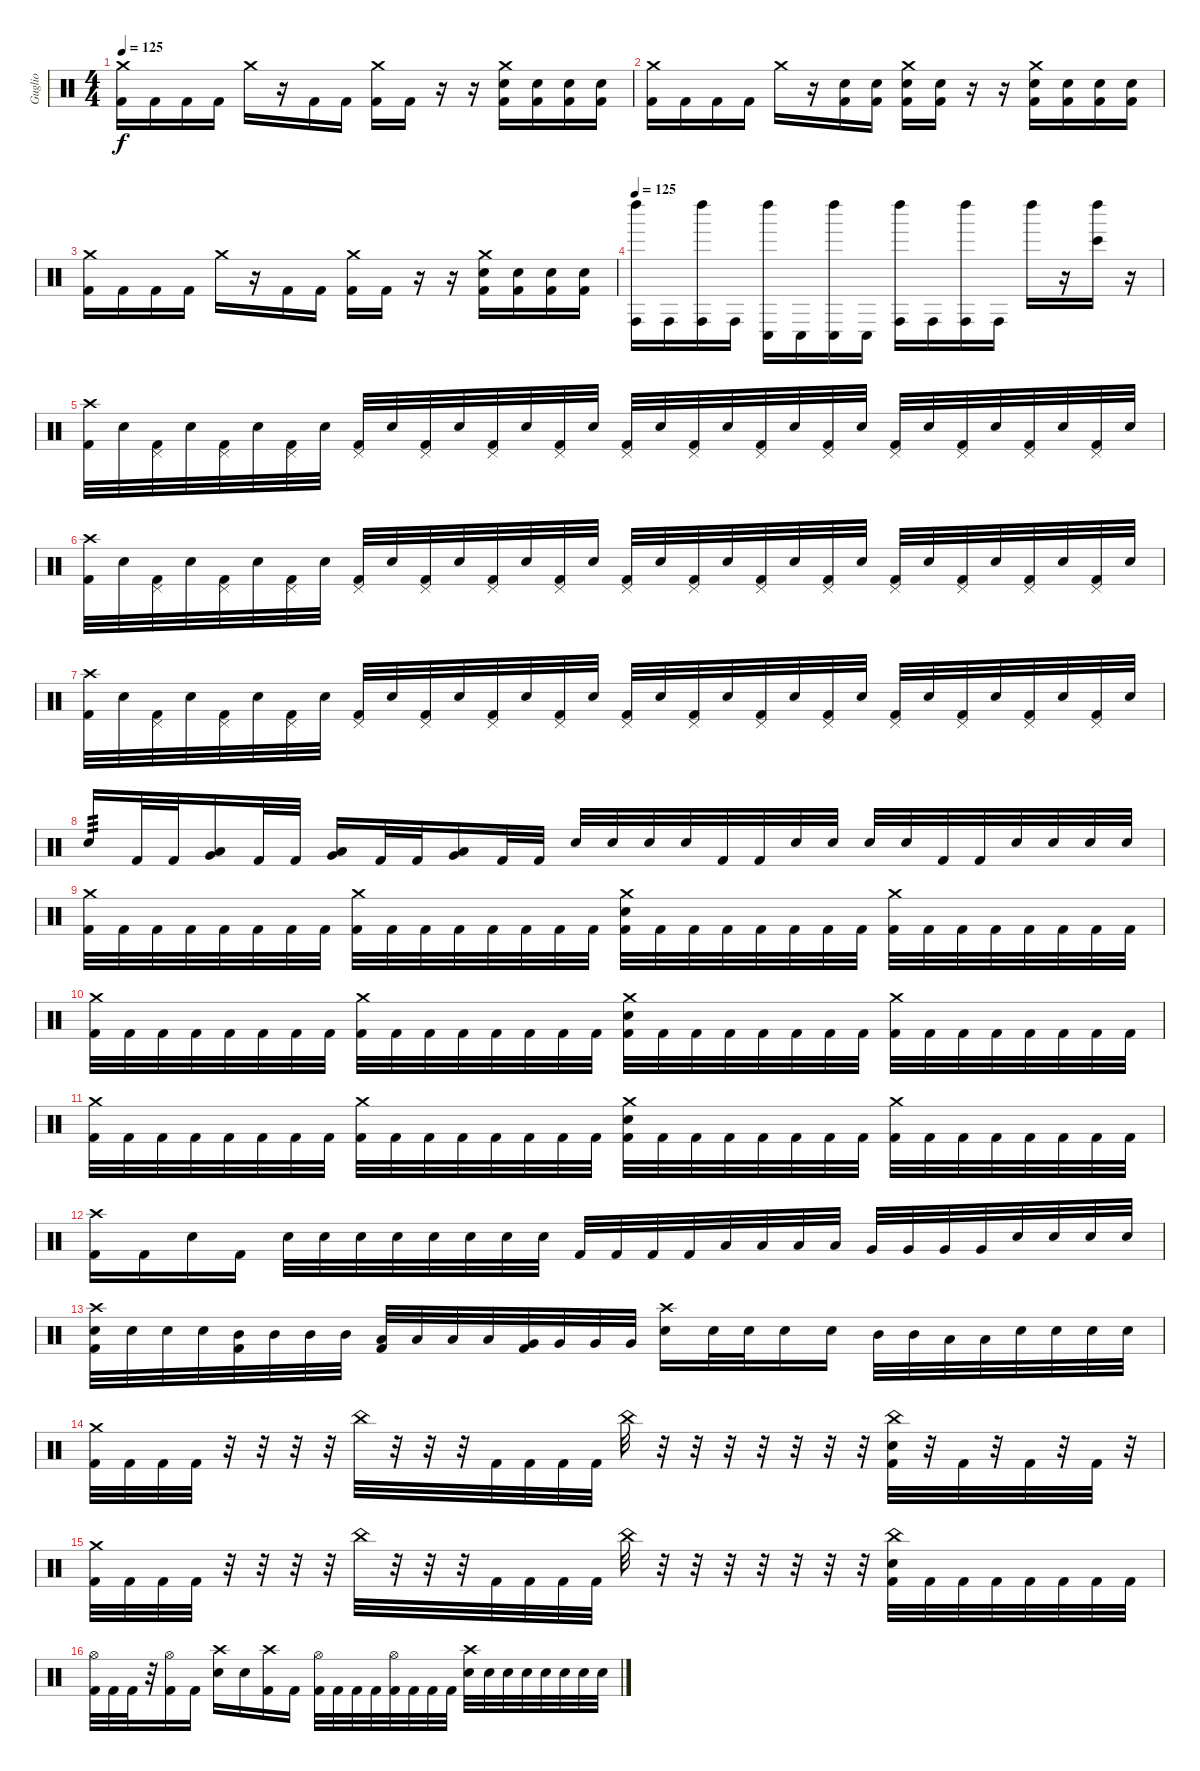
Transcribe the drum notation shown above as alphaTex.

\track ("Guglio" "Guglio") {instrument percussion}
\staff {score}
\articulation defaults
\ts (4 4)
\tempo 125
\clef neutral
\ks c
("Crash medium (hit)" "Kick (hit) 2").16{dy f} "Kick (hit) 2".16 "Kick (hit) 2".16 "Kick (hit) 2".16 "Crash medium (hit)".16 r.16 "Kick (hit) 2".16 "Kick (hit) 2".16 ("Crash medium (hit)" "Kick (hit) 2").16 "Kick (hit) 2".16 r.16 r.16 ("Crash medium (hit)" "Electric Snare (hit)" "Kick (hit) 2").16 ("Electric Snare (hit)" "Kick (hit) 2").16 ("Electric Snare (hit)" "Kick (hit) 2").16 ("Electric Snare (hit)" "Kick (hit) 2").16 |
("Crash medium (hit)" "Kick (hit) 2").16 "Kick (hit) 2".16 "Kick (hit) 2".16 "Kick (hit) 2".16 "Crash medium (hit)".16 r.16 ("Electric Snare (hit)" "Kick (hit) 2").16 ("Electric Snare (hit)" "Kick (hit) 2").16 ("Crash medium (hit)" "Electric Snare (hit)" "Kick (hit) 2").16 ("Electric Snare (hit)" "Kick (hit) 2").16 r.16 r.16 ("Crash medium (hit)" "Electric Snare (hit)" "Kick (hit) 2").16 ("Electric Snare (hit)" "Kick (hit) 2").16 ("Electric Snare (hit)" "Kick (hit) 2").16 ("Electric Snare (hit)" "Kick (hit) 2").16 |
("Crash medium (hit)" "Kick (hit) 2").16 "Kick (hit) 2".16 "Kick (hit) 2".16 "Kick (hit) 2".16 "Crash medium (hit)".16 r.16 "Kick (hit) 2".16 "Kick (hit) 2".16 ("Crash medium (hit)" "Kick (hit) 2").16 "Kick (hit) 2".16 r.16 r.16 ("Crash medium (hit)" "Electric Snare (hit)" "Kick (hit) 2").16 ("Electric Snare (hit)" "Kick (hit) 2").16 ("Electric Snare (hit)" "Kick (hit) 2").16 ("Electric Snare (hit)" "Kick (hit) 2").16 |
\tempo 125
("Left Maraca (hit)" "Conga high (hit)").16 "Conga high (hit)".16 ("Left Maraca (hit)" "Conga high (hit)").16 "Conga high (hit)".16 ("Left Maraca (hit)" "Conga low (hit)").16 "Conga low (hit)".16 ("Left Maraca (hit)" "Conga low (hit)").16 "Conga low (hit)".16 ("Left Maraca (hit)" "Conga high (hit)").16 "Conga high (hit)".16 ("Left Maraca (hit)" "Conga high (hit)").16 "Conga high (hit)".16 "Left Maraca (hit)".16 r.16 ("Left Maraca (hit)" "Bongo High (hit)").16 r.16 |
("Crash high (hit)" "Kick (hit) 2").32 "Electric Snare (hit)".32 ("Pedal Hi-Hat (hit)" "Kick (hit) 2").32 "Electric Snare (hit)".32 ("Pedal Hi-Hat (hit)" "Kick (hit) 2").32 "Electric Snare (hit)".32 ("Pedal Hi-Hat (hit)" "Kick (hit) 2").32 "Electric Snare (hit)".32 ("Pedal Hi-Hat (hit)" "Kick (hit) 2").32 "Electric Snare (hit)".32 ("Pedal Hi-Hat (hit)" "Kick (hit) 2").32 "Electric Snare (hit)".32 ("Pedal Hi-Hat (hit)" "Kick (hit) 2").32 "Electric Snare (hit)".32 ("Pedal Hi-Hat (hit)" "Kick (hit) 2").32 "Electric Snare (hit)".32 ("Pedal Hi-Hat (hit)" "Kick (hit) 2").32 "Electric Snare (hit)".32 ("Pedal Hi-Hat (hit)" "Kick (hit) 2").32 "Electric Snare (hit)".32 ("Pedal Hi-Hat (hit)" "Kick (hit) 2").32 "Electric Snare (hit)".32 ("Pedal Hi-Hat (hit)" "Kick (hit) 2").32 "Electric Snare (hit)".32 ("Pedal Hi-Hat (hit)" "Kick (hit) 2").32 "Electric Snare (hit)".32 ("Pedal Hi-Hat (hit)" "Kick (hit) 2").32 "Electric Snare (hit)".32 ("Pedal Hi-Hat (hit)" "Kick (hit) 2").32 "Electric Snare (hit)".32 ("Pedal Hi-Hat (hit)" "Kick (hit) 2").32 "Electric Snare (hit)".32 |
("Crash high (hit)" "Kick (hit) 2").32 "Electric Snare (hit)".32 ("Pedal Hi-Hat (hit)" "Kick (hit) 2").32 "Electric Snare (hit)".32 ("Pedal Hi-Hat (hit)" "Kick (hit) 2").32 "Electric Snare (hit)".32 ("Pedal Hi-Hat (hit)" "Kick (hit) 2").32 "Electric Snare (hit)".32 ("Pedal Hi-Hat (hit)" "Kick (hit) 2").32 "Electric Snare (hit)".32 ("Pedal Hi-Hat (hit)" "Kick (hit) 2").32 "Electric Snare (hit)".32 ("Pedal Hi-Hat (hit)" "Kick (hit) 2").32 "Electric Snare (hit)".32 ("Pedal Hi-Hat (hit)" "Kick (hit) 2").32 "Electric Snare (hit)".32 ("Pedal Hi-Hat (hit)" "Kick (hit) 2").32 "Electric Snare (hit)".32 ("Pedal Hi-Hat (hit)" "Kick (hit) 2").32 "Electric Snare (hit)".32 ("Pedal Hi-Hat (hit)" "Kick (hit) 2").32 "Electric Snare (hit)".32 ("Pedal Hi-Hat (hit)" "Kick (hit) 2").32 "Electric Snare (hit)".32 ("Pedal Hi-Hat (hit)" "Kick (hit) 2").32 "Electric Snare (hit)".32 ("Pedal Hi-Hat (hit)" "Kick (hit) 2").32 "Electric Snare (hit)".32 ("Pedal Hi-Hat (hit)" "Kick (hit) 2").32 "Electric Snare (hit)".32 ("Pedal Hi-Hat (hit)" "Kick (hit) 2").32 "Electric Snare (hit)".32 |
("Crash high (hit)" "Kick (hit) 2").32 "Electric Snare (hit)".32 ("Pedal Hi-Hat (hit)" "Kick (hit) 2").32 "Electric Snare (hit)".32 ("Pedal Hi-Hat (hit)" "Kick (hit) 2").32 "Electric Snare (hit)".32 ("Pedal Hi-Hat (hit)" "Kick (hit) 2").32 "Electric Snare (hit)".32 ("Pedal Hi-Hat (hit)" "Kick (hit) 2").32 "Electric Snare (hit)".32 ("Pedal Hi-Hat (hit)" "Kick (hit) 2").32 "Electric Snare (hit)".32 ("Pedal Hi-Hat (hit)" "Kick (hit) 2").32 "Electric Snare (hit)".32 ("Pedal Hi-Hat (hit)" "Kick (hit) 2").32 "Electric Snare (hit)".32 ("Pedal Hi-Hat (hit)" "Kick (hit) 2").32 "Electric Snare (hit)".32 ("Pedal Hi-Hat (hit)" "Kick (hit) 2").32 "Electric Snare (hit)".32 ("Pedal Hi-Hat (hit)" "Kick (hit) 2").32 "Electric Snare (hit)".32 ("Pedal Hi-Hat (hit)" "Kick (hit) 2").32 "Electric Snare (hit)".32 ("Pedal Hi-Hat (hit)" "Kick (hit) 2").32 "Electric Snare (hit)".32 ("Pedal Hi-Hat (hit)" "Kick (hit) 2").32 "Electric Snare (hit)".32 ("Pedal Hi-Hat (hit)" "Kick (hit) 2").32 "Electric Snare (hit)".32 ("Pedal Hi-Hat (hit)" "Kick (hit) 2").32 "Electric Snare (hit)".32 |
"Electric Snare (hit)".16{tp 3} "Kick (hit) 2".32 "Kick (hit) 2".32 ("Very Low Tom (hit)" "Low Tom (hit)").16 "Kick (hit) 2".32 "Kick (hit) 2".32 ("Very Low Tom (hit)" "Low Tom (hit)").16 "Kick (hit) 2".32 "Kick (hit) 2".32 ("Low Floor Tom (hit)" "Very Low Tom (hit)").16 "Kick (hit) 2".32 "Kick (hit) 2".32 "Electric Snare (hit)".32 "Electric Snare (hit)".32 "Electric Snare (hit)".32 "Electric Snare (hit)".32 "Kick (hit) 2".32 "Kick (hit) 2".32 "Electric Snare (hit)".32 "Electric Snare (hit)".32 "Electric Snare (hit)".32 "Electric Snare (hit)".32 "Kick (hit) 2".32 "Kick (hit) 2".32 "Electric Snare (hit)".32 "Electric Snare (hit)".32 "Electric Snare (hit)".32 "Electric Snare (hit)".32 |
("Crash medium (hit)" "Kick (hit) 2").32 "Kick (hit) 2".32 "Kick (hit) 2".32 "Kick (hit) 2".32 "Kick (hit) 2".32 "Kick (hit) 2".32 "Kick (hit) 2".32 "Kick (hit) 2".32 ("Crash medium (hit)" "Kick (hit) 2").32 "Kick (hit) 2".32 "Kick (hit) 2".32 "Kick (hit) 2".32 "Kick (hit) 2".32 "Kick (hit) 2".32 "Kick (hit) 2".32 "Kick (hit) 2".32 ("Crash medium (hit)" "Electric Snare (hit)" "Kick (hit) 2").32 "Kick (hit) 2".32 "Kick (hit) 2".32 "Kick (hit) 2".32 "Kick (hit) 2".32 "Kick (hit) 2".32 "Kick (hit) 2".32 "Kick (hit) 2".32 ("Crash medium (hit)" "Kick (hit) 2").32 "Kick (hit) 2".32 "Kick (hit) 2".32 "Kick (hit) 2".32 "Kick (hit) 2".32 "Kick (hit) 2".32 "Kick (hit) 2".32 "Kick (hit) 2".32 |
("Crash medium (hit)" "Kick (hit) 2").32 "Kick (hit) 2".32 "Kick (hit) 2".32 "Kick (hit) 2".32 "Kick (hit) 2".32 "Kick (hit) 2".32 "Kick (hit) 2".32 "Kick (hit) 2".32 ("Crash medium (hit)" "Kick (hit) 2").32 "Kick (hit) 2".32 "Kick (hit) 2".32 "Kick (hit) 2".32 "Kick (hit) 2".32 "Kick (hit) 2".32 "Kick (hit) 2".32 "Kick (hit) 2".32 ("Crash medium (hit)" "Electric Snare (hit)" "Kick (hit) 2").32 "Kick (hit) 2".32 "Kick (hit) 2".32 "Kick (hit) 2".32 "Kick (hit) 2".32 "Kick (hit) 2".32 "Kick (hit) 2".32 "Kick (hit) 2".32 ("Crash medium (hit)" "Kick (hit) 2").32 "Kick (hit) 2".32 "Kick (hit) 2".32 "Kick (hit) 2".32 "Kick (hit) 2".32 "Kick (hit) 2".32 "Kick (hit) 2".32 "Kick (hit) 2".32 |
("Crash medium (hit)" "Kick (hit) 2").32 "Kick (hit) 2".32 "Kick (hit) 2".32 "Kick (hit) 2".32 "Kick (hit) 2".32 "Kick (hit) 2".32 "Kick (hit) 2".32 "Kick (hit) 2".32 ("Crash medium (hit)" "Kick (hit) 2").32 "Kick (hit) 2".32 "Kick (hit) 2".32 "Kick (hit) 2".32 "Kick (hit) 2".32 "Kick (hit) 2".32 "Kick (hit) 2".32 "Kick (hit) 2".32 ("Crash medium (hit)" "Electric Snare (hit)" "Kick (hit) 2").32 "Kick (hit) 2".32 "Kick (hit) 2".32 "Kick (hit) 2".32 "Kick (hit) 2".32 "Kick (hit) 2".32 "Kick (hit) 2".32 "Kick (hit) 2".32 ("Crash medium (hit)" "Kick (hit) 2").32 "Kick (hit) 2".32 "Kick (hit) 2".32 "Kick (hit) 2".32 "Kick (hit) 2".32 "Kick (hit) 2".32 "Kick (hit) 2".32 "Kick (hit) 2".32 |
("Crash high (hit)" "Kick (hit) 2").16 "Kick (hit) 2".16 "Electric Snare (hit)".16 "Kick (hit) 2".16 "Electric Snare (hit)".32 "Electric Snare (hit)".32 "Electric Snare (hit)".32 "Electric Snare (hit)".32 "Electric Snare (hit)".32 "Electric Snare (hit)".32 "Electric Snare (hit)".32 "Electric Snare (hit)".32 "Kick (hit) 2".32 "Kick (hit) 2".32 "Kick (hit) 2".32 "Kick (hit) 2".32 "Low Floor Tom (hit)".32 "Low Floor Tom (hit)".32 "Low Floor Tom (hit)".32 "Low Floor Tom (hit)".32 "Very Low Tom (hit)".32 "Very Low Tom (hit)".32 "Very Low Tom (hit)".32 "Very Low Tom (hit)".32 "Electric Snare (hit)".32 "Electric Snare (hit)".32 "Electric Snare (hit)".32 "Electric Snare (hit)".32 |
("Crash high (hit)" "Electric Snare (hit)" "Kick (hit) 2").32 "Electric Snare (hit)".32 "Electric Snare (hit)".32 "Electric Snare (hit)".32 ("Mid Tom (hit)" "Kick (hit) 2").32 "Mid Tom (hit)".32 "Mid Tom (hit)".32 "Mid Tom (hit)".32 ("Low Tom (hit)" "Kick (hit) 2").32 "Low Tom (hit)".32 "Low Tom (hit)".32 "Low Tom (hit)".32 ("Very Low Tom (hit)" "Kick (hit) 2").32 "Very Low Tom (hit)".32 "Very Low Tom (hit)".32 "Very Low Tom (hit)".32 ("Crash high (hit)" "Electric Snare (hit)").16 "Electric Snare (hit)".32 "Electric Snare (hit)".32 "Electric Snare (hit)".16 "Electric Snare (hit)".16 "Mid Tom (hit)".32 "Mid Tom (hit)".32 "Low Tom (hit)".32 "Low Tom (hit)".32 "Electric Snare (hit)".32 "Electric Snare (hit)".32 "Electric Snare (hit)".32 "Electric Snare (hit)".32 |
("Crash medium (hit)" "Kick (hit) 2").32 "Kick (hit) 2".32 "Kick (hit) 2".32 "Kick (hit) 2".32 r.32 r.32 r.32 r.32 "China (hit)".32 r.32 r.32 r.32 "Kick (hit) 2".32 "Kick (hit) 2".32 "Kick (hit) 2".32 "Kick (hit) 2".32 "China (hit)".32 r.32 r.32 r.32 r.32 r.32 r.32 r.32 ("China (hit)" "Electric Snare (hit)" "Kick (hit) 2").32 r.32 "Kick (hit) 2".32 r.32 "Kick (hit) 2".32 r.32 "Kick (hit) 2".32 r.32 |
("Crash medium (hit)" "Kick (hit) 2").32 "Kick (hit) 2".32 "Kick (hit) 2".32 "Kick (hit) 2".32 r.32 r.32 r.32 r.32 "China (hit)".32 r.32 r.32 r.32 "Kick (hit) 2".32 "Kick (hit) 2".32 "Kick (hit) 2".32 "Kick (hit) 2".32 "China (hit)".32 r.32 r.32 r.32 r.32 r.32 r.32 r.32 ("China (hit)" "Electric Snare (hit)" "Kick (hit) 2").32 "Kick (hit) 2".32 "Kick (hit) 2".32 "Kick (hit) 2".32 "Kick (hit) 2".32 "Kick (hit) 2".32 "Kick (hit) 2".32 "Kick (hit) 2".32 |
("Hi-Hat (open)" "Kick (hit) 2").32 "Kick (hit) 2".32 "Kick (hit) 2".32 r.32 ("Hi-Hat (open)" "Kick (hit) 2").16 "Kick (hit) 2".16 ("Crash high (hit)" "Electric Snare (hit)").16 "Electric Snare (hit)".16 ("Crash high (hit)" "Kick (hit) 2").16 "Kick (hit) 2".16 ("Hi-Hat (open)" "Kick (hit) 2").32 "Kick (hit) 2".32 "Kick (hit) 2".32 "Kick (hit) 2".32 ("Hi-Hat (open)" "Kick (hit) 2").32 "Kick (hit) 2".32 "Kick (hit) 2".32 "Kick (hit) 2".32 ("Crash high (hit)" "Electric Snare (hit)").32 "Electric Snare (hit)".32 "Electric Snare (hit)".32 "Electric Snare (hit)".32 "Electric Snare (hit)".32 "Electric Snare (hit)".32 "Electric Snare (hit)".32 "Electric Snare (hit)".32
